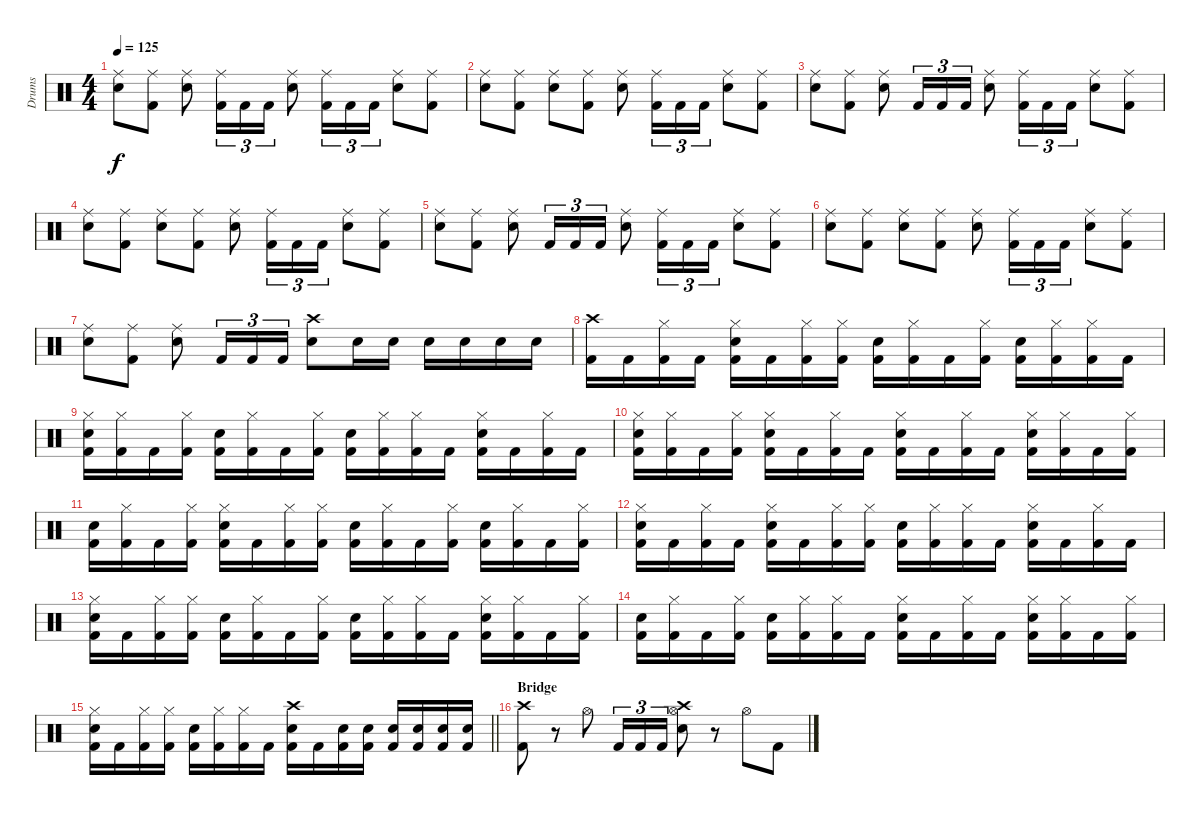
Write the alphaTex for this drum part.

\track ("Drums" "Drums") {instrument percussion}
\staff {score}
\articulation defaults
\ts (4 4)
\tempo 125
\clef neutral
\ks c
("Ride (middle)" "Snare (hit) 2").8{dy f} ("Ride (middle)" "Kick (hit) 2").8 ("Ride (middle)" "Snare (hit) 2").8 ("Ride (middle)" "Kick (hit) 2").16{tu (3 2)} "Kick (hit) 2".16{tu (3 2)} "Kick (hit) 2".16{tu (3 2)} ("Ride (middle)" "Snare (hit) 2").8 ("Ride (middle)" "Kick (hit) 2").16{tu (3 2)} "Kick (hit) 2".16{tu (3 2)} "Kick (hit) 2".16{tu (3 2)} ("Ride (middle)" "Snare (hit) 2").8 ("Ride (middle)" "Kick (hit) 2").8 |
("Ride (middle)" "Snare (hit) 2").8 ("Ride (middle)" "Kick (hit) 2").8 ("Ride (middle)" "Snare (hit) 2").8 ("Ride (middle)" "Kick (hit) 2").8 ("Ride (middle)" "Snare (hit) 2").8 ("Ride (middle)" "Kick (hit) 2").16{tu (3 2)} "Kick (hit) 2".16{tu (3 2)} "Kick (hit) 2".16{tu (3 2)} ("Ride (middle)" "Snare (hit) 2").8 ("Ride (middle)" "Kick (hit) 2").8 |
("Ride (middle)" "Snare (hit) 2").8 ("Ride (middle)" "Kick (hit) 2").8 ("Ride (middle)" "Snare (hit) 2").8 "Kick (hit) 2".16{tu (3 2)} "Kick (hit) 2".16{tu (3 2)} "Kick (hit) 2".16{tu (3 2)} ("Ride (middle)" "Snare (hit) 2").8 ("Ride (middle)" "Kick (hit) 2").16{tu (3 2)} "Kick (hit) 2".16{tu (3 2)} "Kick (hit) 2".16{tu (3 2)} ("Ride (middle)" "Snare (hit) 2").8 ("Ride (middle)" "Kick (hit) 2").8 |
("Ride (middle)" "Snare (hit) 2").8 ("Ride (middle)" "Kick (hit) 2").8 ("Ride (middle)" "Snare (hit) 2").8 ("Ride (middle)" "Kick (hit) 2").8 ("Ride (middle)" "Snare (hit) 2").8 ("Ride (middle)" "Kick (hit) 2").16{tu (3 2)} "Kick (hit) 2".16{tu (3 2)} "Kick (hit) 2".16{tu (3 2)} ("Ride (middle)" "Snare (hit) 2").8 ("Ride (middle)" "Kick (hit) 2").8 |
("Ride (middle)" "Snare (hit) 2").8 ("Ride (middle)" "Kick (hit) 2").8 ("Ride (middle)" "Snare (hit) 2").8 "Kick (hit) 2".16{tu (3 2)} "Kick (hit) 2".16{tu (3 2)} "Kick (hit) 2".16{tu (3 2)} ("Ride (middle)" "Snare (hit) 2").8 ("Ride (middle)" "Kick (hit) 2").16{tu (3 2)} "Kick (hit) 2".16{tu (3 2)} "Kick (hit) 2".16{tu (3 2)} ("Ride (middle)" "Snare (hit) 2").8 ("Ride (middle)" "Kick (hit) 2").8 |
("Ride (middle)" "Snare (hit) 2").8 ("Ride (middle)" "Kick (hit) 2").8 ("Ride (middle)" "Snare (hit) 2").8 ("Ride (middle)" "Kick (hit) 2").8 ("Ride (middle)" "Snare (hit) 2").8 ("Ride (middle)" "Kick (hit) 2").16{tu (3 2)} "Kick (hit) 2".16{tu (3 2)} "Kick (hit) 2".16{tu (3 2)} ("Ride (middle)" "Snare (hit) 2").8 ("Ride (middle)" "Kick (hit) 2").8 |
("Ride (middle)" "Snare (hit) 2").8 ("Ride (middle)" "Kick (hit) 2").8 ("Ride (middle)" "Snare (hit) 2").8 "Kick (hit) 2".16{tu (3 2)} "Kick (hit) 2".16{tu (3 2)} "Kick (hit) 2".16{tu (3 2)} ("Crash high (hit)" "Snare (hit) 2").8 "Snare (hit) 2".16 "Snare (hit) 2".16 "Snare (hit) 2".16 "Snare (hit) 2".16 "Snare (hit) 2".16 "Snare (hit) 2".16 |
("Crash high (hit)" "Kick (hit) 2").16 "Kick (hit) 2".16 ("Hi-Hat (closed)" "Kick (hit) 2").16 "Kick (hit) 2".16 ("Hi-Hat (closed)" "Snare (hit) 2" "Kick (hit) 2").16 "Kick (hit) 2".16 ("Hi-Hat (closed)" "Kick (hit) 2").16 ("Hi-Hat (closed)" "Kick (hit) 2").16 ("Snare (hit) 2" "Kick (hit) 2").16 ("Hi-Hat (closed)" "Kick (hit) 2").16 "Kick (hit) 2".16 ("Hi-Hat (closed)" "Kick (hit) 2").16 ("Snare (hit) 2" "Kick (hit) 2").16 ("Hi-Hat (closed)" "Kick (hit) 2").16 ("Hi-Hat (closed)" "Kick (hit) 2").16 "Kick (hit) 2".16 |
("Hi-Hat (closed)" "Snare (hit) 2" "Kick (hit) 2").16 ("Hi-Hat (closed)" "Kick (hit) 2").16 "Kick (hit) 2".16 ("Hi-Hat (closed)" "Kick (hit) 2").16 ("Snare (hit) 2" "Kick (hit) 2").16 ("Hi-Hat (closed)" "Kick (hit) 2").16 "Kick (hit) 2".16 ("Hi-Hat (closed)" "Kick (hit) 2").16 ("Snare (hit) 2" "Kick (hit) 2").16 ("Hi-Hat (closed)" "Kick (hit) 2").16 ("Hi-Hat (closed)" "Kick (hit) 2").16 "Kick (hit) 2".16 ("Hi-Hat (closed)" "Snare (hit) 2" "Kick (hit) 2").16 "Kick (hit) 2".16 ("Hi-Hat (closed)" "Kick (hit) 2").16 "Kick (hit) 2".16 |
("Hi-Hat (closed)" "Snare (hit) 2" "Kick (hit) 2").16 ("Hi-Hat (closed)" "Kick (hit) 2").16 "Kick (hit) 2".16 ("Hi-Hat (closed)" "Kick (hit) 2").16 ("Hi-Hat (closed)" "Snare (hit) 2" "Kick (hit) 2").16 "Kick (hit) 2".16 ("Hi-Hat (closed)" "Kick (hit) 2").16 "Kick (hit) 2".16 ("Hi-Hat (closed)" "Snare (hit) 2" "Kick (hit) 2").16 "Kick (hit) 2".16 ("Hi-Hat (closed)" "Kick (hit) 2").16 "Kick (hit) 2".16 ("Hi-Hat (closed)" "Snare (hit) 2" "Kick (hit) 2").16 ("Hi-Hat (closed)" "Kick (hit) 2").16 "Kick (hit) 2".16 ("Hi-Hat (closed)" "Kick (hit) 2").16 |
("Snare (hit) 2" "Kick (hit) 2").16 ("Hi-Hat (closed)" "Kick (hit) 2").16 "Kick (hit) 2".16 ("Hi-Hat (closed)" "Kick (hit) 2").16 ("Hi-Hat (closed)" "Snare (hit) 2" "Kick (hit) 2").16 "Kick (hit) 2".16 ("Hi-Hat (closed)" "Kick (hit) 2").16 ("Hi-Hat (closed)" "Kick (hit) 2").16 ("Snare (hit) 2" "Kick (hit) 2").16 ("Hi-Hat (closed)" "Kick (hit) 2").16 "Kick (hit) 2".16 ("Hi-Hat (closed)" "Kick (hit) 2").16 ("Snare (hit) 2" "Kick (hit) 2").16 ("Hi-Hat (closed)" "Kick (hit) 2").16 "Kick (hit) 2".16 ("Hi-Hat (closed)" "Kick (hit) 2").16 |
("Hi-Hat (closed)" "Snare (hit) 2" "Kick (hit) 2").16 "Kick (hit) 2".16 ("Hi-Hat (closed)" "Kick (hit) 2").16 "Kick (hit) 2".16 ("Hi-Hat (closed)" "Snare (hit) 2" "Kick (hit) 2").16 "Kick (hit) 2".16 ("Hi-Hat (closed)" "Kick (hit) 2").16 ("Hi-Hat (closed)" "Kick (hit) 2").16 ("Snare (hit) 2" "Kick (hit) 2").16 ("Hi-Hat (closed)" "Kick (hit) 2").16 ("Hi-Hat (closed)" "Kick (hit) 2").16 "Kick (hit) 2".16 ("Hi-Hat (closed)" "Snare (hit) 2" "Kick (hit) 2").16 "Kick (hit) 2".16 ("Hi-Hat (closed)" "Kick (hit) 2").16 "Kick (hit) 2".16 |
("Hi-Hat (closed)" "Snare (hit) 2" "Kick (hit) 2").16 "Kick (hit) 2".16 ("Hi-Hat (closed)" "Kick (hit) 2").16 ("Hi-Hat (closed)" "Kick (hit) 2").16 ("Snare (hit) 2" "Kick (hit) 2").16 ("Hi-Hat (closed)" "Kick (hit) 2").16 "Kick (hit) 2".16 ("Hi-Hat (closed)" "Kick (hit) 2").16 ("Snare (hit) 2" "Kick (hit) 2").16 ("Hi-Hat (closed)" "Kick (hit) 2").16 ("Hi-Hat (closed)" "Kick (hit) 2").16 "Kick (hit) 2".16 ("Hi-Hat (closed)" "Snare (hit) 2" "Kick (hit) 2").16 ("Hi-Hat (closed)" "Kick (hit) 2").16 "Kick (hit) 2".16 ("Hi-Hat (closed)" "Kick (hit) 2").16 |
("Snare (hit) 2" "Kick (hit) 2").16 ("Hi-Hat (closed)" "Kick (hit) 2").16 "Kick (hit) 2".16 ("Hi-Hat (closed)" "Kick (hit) 2").16 ("Snare (hit) 2" "Kick (hit) 2").16 ("Hi-Hat (closed)" "Kick (hit) 2").16 ("Hi-Hat (closed)" "Kick (hit) 2").16 "Kick (hit) 2".16 ("Hi-Hat (closed)" "Snare (hit) 2" "Kick (hit) 2").16 "Kick (hit) 2".16 ("Hi-Hat (closed)" "Kick (hit) 2").16 "Kick (hit) 2".16 ("Hi-Hat (closed)" "Snare (hit) 2" "Kick (hit) 2").16 ("Hi-Hat (closed)" "Kick (hit) 2").16 "Kick (hit) 2".16 ("Hi-Hat (closed)" "Kick (hit) 2").16 |
\barLineRight lightlight
("Hi-Hat (closed)" "Snare (hit) 2" "Kick (hit) 2").16 "Kick (hit) 2".16 ("Hi-Hat (closed)" "Kick (hit) 2").16 ("Hi-Hat (closed)" "Kick (hit) 2").16 ("Snare (hit) 2" "Kick (hit) 2").16 ("Hi-Hat (closed)" "Kick (hit) 2").16 ("Hi-Hat (closed)" "Kick (hit) 2").16 "Kick (hit) 2".16 ("Crash high (hit)" "Snare (hit) 2" "Kick (hit) 2").16 "Kick (hit) 2".16 ("Snare (hit) 2" "Kick (hit) 2").16 ("Snare (hit) 2" "Kick (hit) 2").16 ("Snare (hit) 2" "Kick (hit) 2").16 ("Snare (hit) 2" "Kick (hit) 2").16 ("Snare (hit) 2" "Kick (hit) 2").16 ("Snare (hit) 2" "Kick (hit) 2").16 |
\section ("" "Bridge")
("Crash high (hit)" "Kick (hit) 2").8 r.8 "Hi-Hat (open)".8 "Kick (hit) 2".16{tu (3 2)} "Kick (hit) 2".16{tu (3 2)} "Kick (hit) 2".16{tu (3 2)} ("Hi-Hat (open)" "Crash high (hit)" "Snare (hit) 2").8 r.8 "Hi-Hat (open)".8 "Kick (hit) 2".8
